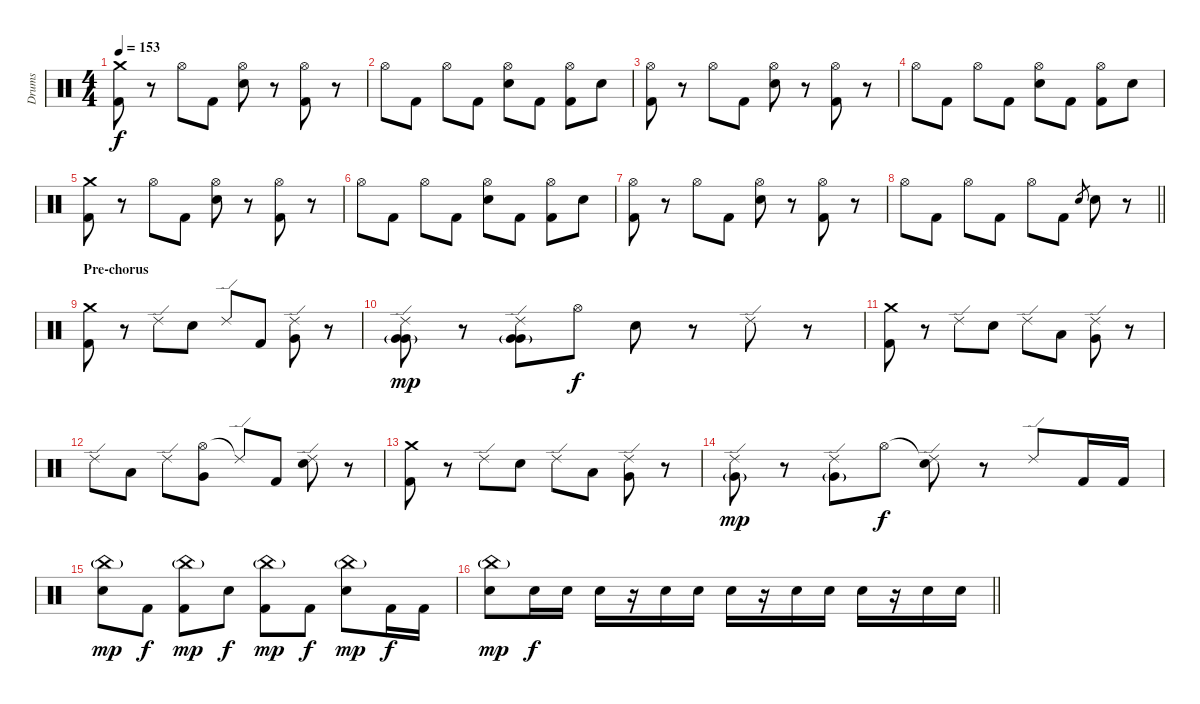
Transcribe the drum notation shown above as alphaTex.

\track ("Drums" "Drums") {instrument percussion}
\staff {score}
\articulation defaults
\ts (4 4)
\tempo 153
\clef neutral
\ks c
("Crash medium (hit)" "Kick (hit) 2").8{dy f} r.8 "Hi-Hat (open)".8 "Kick (hit) 2".8 ("Hi-Hat (open)" "Electric Snare (hit)").8 r.8 ("Hi-Hat (open)" "Kick (hit) 2").8 r.8 |
"Hi-Hat (open)".8 "Kick (hit) 2".8 "Hi-Hat (open)".8 "Kick (hit) 2".8 ("Hi-Hat (open)" "Electric Snare (hit)").8 "Kick (hit) 2".8 ("Hi-Hat (open)" "Kick (hit) 2").8 "Electric Snare (hit)".8 |
("Hi-Hat (open)" "Kick (hit) 2").8 r.8 "Hi-Hat (open)".8 "Kick (hit) 2".8 ("Hi-Hat (open)" "Electric Snare (hit)").8 r.8 ("Hi-Hat (open)" "Kick (hit) 2").8 r.8 |
"Hi-Hat (open)".8 "Kick (hit) 2".8 "Hi-Hat (open)".8 "Kick (hit) 2".8 ("Hi-Hat (open)" "Electric Snare (hit)").8 "Kick (hit) 2".8 ("Hi-Hat (open)" "Kick (hit) 2").8 "Electric Snare (hit)".8 |
("Crash medium (hit)" "Kick (hit) 2").8 r.8 "Hi-Hat (open)".8 "Kick (hit) 2".8 ("Hi-Hat (open)" "Electric Snare (hit)").8 r.8 ("Hi-Hat (open)" "Kick (hit) 2").8 r.8 |
"Hi-Hat (open)".8 "Kick (hit) 2".8 "Hi-Hat (open)".8 "Kick (hit) 2".8 ("Hi-Hat (open)" "Electric Snare (hit)").8 "Kick (hit) 2".8 ("Hi-Hat (open)" "Kick (hit) 2").8 "Electric Snare (hit)".8 |
("Hi-Hat (open)" "Kick (hit) 2").8 r.8 "Hi-Hat (open)".8 "Kick (hit) 2".8 ("Hi-Hat (open)" "Electric Snare (hit)").8 r.8 ("Hi-Hat (open)" "Kick (hit) 2").8 r.8 |
\barLineRight lightlight "Hi-Hat (open)".8 "Kick (hit) 2".8 "Hi-Hat (open)".8 "Kick (hit) 2".8 "Hi-Hat (open)".8 "Kick (hit) 2".8 "Electric Snare (hit)".8{gr} "Electric Snare (hit)".8
r.8 |
\section ("" "Pre-chorus")
("Crash medium (hit)" "Kick (hit) 2").8 r.8 "Ride (edge) 2".8 "Electric Snare (hit)".8 "Ride (edge) 2".8 "Kick (hit) 2".8 ("Ride (edge) 2" "Very Low Tom (hit)").8 r.8 |
("Very Low Tom (hit)"{g} "Ride (edge) 2" "Very Low Tom (hit)"{g}).8{dy mp} r.8 ("Very Low Tom (hit)"{g} "Ride (edge) 2" "Very Low Tom (hit)"{g}).8 "Hi-Hat (open)".8{dy f} "Electric Snare (hit)".8 r.8 "Ride (edge) 2".8 r.8 |
("Crash medium (hit)" "Kick (hit) 2").8 r.8 "Ride (edge) 2".8 "Electric Snare (hit)".8 "Ride (edge) 2".8 "Low Tom (hit)".8 ("Ride (edge) 2" "Very Low Tom (hit)").8 r.8 |
"Ride (edge) 2".8 "Low Tom (hit)".8 "Ride (edge) 2".8 ("Hi-Hat (open)" "Very Low Tom (hit)").8 "Ride (edge) 2"{t}.8 "Kick (hit) 2".8 ("Ride (edge) 2" "Electric Snare (hit)").8 r.8 |
("Crash medium (hit)" "Kick (hit) 2").8 r.8 "Ride (edge) 2".8 "Electric Snare (hit)".8 "Ride (edge) 2".8 "Low Tom (hit)".8 ("Ride (edge) 2" "Very Low Tom (hit)").8 r.8 |
("Ride (edge) 2" "Very Low Tom (hit)"{g}).8{dy mp} r.8 ("Ride (edge) 2" "Very Low Tom (hit)"{g}).8 "Hi-Hat (open)".8{dy f} ("Ride (edge) 2"{t} "Electric Snare (hit)").8 r.8 "Ride (edge) 2".8 "Kick (hit) 2".16 "Kick (hit) 2".16 |
("China (hit)"{g} "Electric Snare (hit)").8{dy mp} "Kick (hit) 2".8{dy f} ("China (hit)"{g} "Kick (hit) 2").8{dy mp} "Electric Snare (hit)".8{dy f} ("China (hit)"{g} "Kick (hit) 2").8{dy mp} "Kick (hit) 2".8{dy f} ("China (hit)"{g} "Electric Snare (hit)").8{dy mp} "Kick (hit) 2".16{dy f} "Kick (hit) 2".16 |
\barLineRight lightlight
("China (hit)"{g} "Electric Snare (hit)").8{dy mp} "Electric Snare (hit)".16{dy f} "Electric Snare (hit)".16 "Electric Snare (hit)".16 r.16 "Electric Snare (hit)".16 "Electric Snare (hit)".16 "Electric Snare (hit)".16 r.16 "Electric Snare (hit)".16 "Electric Snare (hit)".16 "Electric Snare (hit)".16 r.16 "Electric Snare (hit)".16 "Electric Snare (hit)".16
